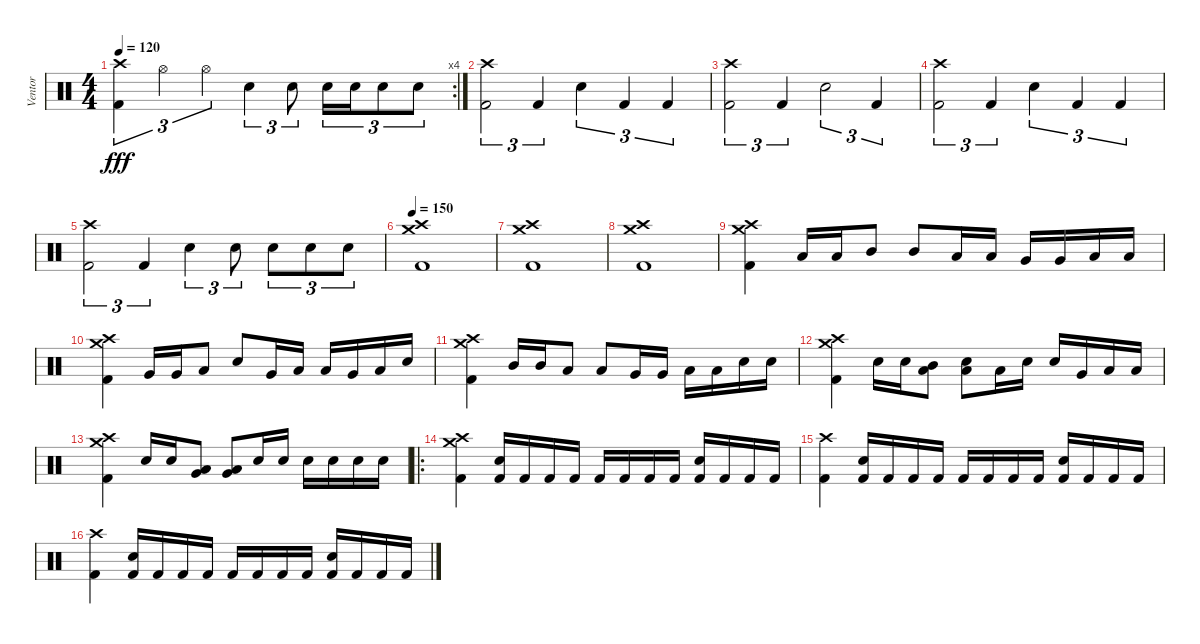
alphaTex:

\track ("Ventor" "Ventor") {instrument percussion}
\staff {score}
\articulation defaults
\rc 4
\ts (4 4)
\tempo 120
\clef neutral
\ks c
("Crash high (hit)" "Kick (hit) 2").4{tu (3 2) dy fff} "Hi-Hat (open)".4{tu (3 2)} "Hi-Hat (open)".4{tu (3 2)} "Electric Snare (hit)".4{tu (3 2)} "Electric Snare (hit)".8{tu (3 2)} "Electric Snare (hit)".16{tu (3 2)} "Electric Snare (hit)".16{tu (3 2)} "Electric Snare (hit)".8{tu (3 2)} "Electric Snare (hit)".8{tu (3 2)} |
("Crash high (hit)" "Kick (hit) 2").2{tu (3 2)} "Kick (hit) 2".4{tu (3 2)} "Electric Snare (hit)".4{tu (3 2)} "Kick (hit) 2".4{tu (3 2)} "Kick (hit) 2".4{tu (3 2)} |
("Crash high (hit)" "Kick (hit) 2").2{tu (3 2)} "Kick (hit) 2".4{tu (3 2)} "Electric Snare (hit)".2{tu (3 2)} "Kick (hit) 2".4{tu (3 2)} |
("Crash high (hit)" "Kick (hit) 2").2{tu (3 2)} "Kick (hit) 2".4{tu (3 2)} "Electric Snare (hit)".4{tu (3 2)} "Kick (hit) 2".4{tu (3 2)} "Kick (hit) 2".4{tu (3 2)} |
("Crash high (hit)" "Kick (hit) 2").2{tu (3 2)} "Kick (hit) 2".4{tu (3 2)} "Electric Snare (hit)".4{tu (3 2)} "Electric Snare (hit)".8{tu (3 2)} "Electric Snare (hit)".8{tu (3 2)} "Electric Snare (hit)".8{tu (3 2)} "Electric Snare (hit)".8{tu (3 2)} |
\tempo 150
("Crash medium (hit)" "Crash high (hit)" "Kick (hit) 2").1 |
("Crash medium (hit)" "Crash high (hit)" "Kick (hit) 2").1 |
("Crash medium (hit)" "Crash high (hit)" "Kick (hit) 2").1 |
("Crash medium (hit)" "Crash high (hit)" "Kick (hit) 2").4 "Low Tom (hit)".16 "Low Tom (hit)".16 "Mid Tom (hit)".8 "Mid Tom (hit)".8 "Low Tom (hit)".16 "Low Tom (hit)".16 "Very Low Tom (hit)".16 "Very Low Tom (hit)".16 "Low Floor Tom (hit)".16 "Low Floor Tom (hit)".16 |
("Crash medium (hit)" "Crash high (hit)" "Kick (hit) 2").4 "Very Low Tom (hit)".16 "Very Low Tom (hit)".16 "Low Floor Tom (hit)".8 "Electric Snare (hit)".8 "Very Low Tom (hit)".16 "Low Floor Tom (hit)".16 "Low Tom (hit)".16 "Very Low Tom (hit)".16 "Low Floor Tom (hit)".16 "Electric Snare (hit)".16 |
("Crash medium (hit)" "Crash high (hit)" "Kick (hit) 2").4 "Mid Tom (hit)".16 "Mid Tom (hit)".16 "Low Tom (hit)".8 "Low Tom (hit)".8 "Very Low Tom (hit)".16 "Very Low Tom (hit)".16 "Low Floor Tom (hit)".16 "Low Floor Tom (hit)".16 "Electric Snare (hit)".16 "Electric Snare (hit)".16 |
("Crash medium (hit)" "Crash high (hit)" "Kick (hit) 2").4 "Electric Snare (hit)".16 "Electric Snare (hit)".16 ("Mid Tom (hit)" "Low Floor Tom (hit)").8 ("Low Tom (hit)" "Electric Snare (hit)").8 "Low Floor Tom (hit)".16 "Electric Snare (hit)".16 "Electric Snare (hit)".16 "Very Low Tom (hit)".16 "Low Floor Tom (hit)".16 "Low Tom (hit)".16 |
("Crash medium (hit)" "Crash high (hit)" "Kick (hit) 2").4 "Electric Snare (hit)".16 "Electric Snare (hit)".16 ("Very Low Tom (hit)" "Low Floor Tom (hit)").8 ("Very Low Tom (hit)" "Low Floor Tom (hit)").8 "Electric Snare (hit)".16 "Electric Snare (hit)".16 "Electric Snare (hit)".16 "Electric Snare (hit)".16 "Electric Snare (hit)".16 "Electric Snare (hit)".16 |
\ro
("Crash medium (hit)" "Crash high (hit)" "Kick (hit) 2").4 ("Electric Snare (hit)" "Kick (hit) 2").16 "Kick (hit) 2".16 "Kick (hit) 2".16 "Kick (hit) 2".16 "Kick (hit) 2".16 "Kick (hit) 2".16 "Kick (hit) 2".16 "Kick (hit) 2".16 ("Electric Snare (hit)" "Kick (hit) 2").16 "Kick (hit) 2".16 "Kick (hit) 2".16 "Kick (hit) 2".16 |
("Crash high (hit)" "Kick (hit) 2").4 ("Electric Snare (hit)" "Kick (hit) 2").16 "Kick (hit) 2".16 "Kick (hit) 2".16 "Kick (hit) 2".16 "Kick (hit) 2".16 "Kick (hit) 2".16 "Kick (hit) 2".16 "Kick (hit) 2".16 ("Electric Snare (hit)" "Kick (hit) 2").16 "Kick (hit) 2".16 "Kick (hit) 2".16 "Kick (hit) 2".16 |
("Crash high (hit)" "Kick (hit) 2").4 ("Electric Snare (hit)" "Kick (hit) 2").16 "Kick (hit) 2".16 "Kick (hit) 2".16 "Kick (hit) 2".16 "Kick (hit) 2".16 "Kick (hit) 2".16 "Kick (hit) 2".16 "Kick (hit) 2".16 ("Electric Snare (hit)" "Kick (hit) 2").16 "Kick (hit) 2".16 "Kick (hit) 2".16 "Kick (hit) 2".16
